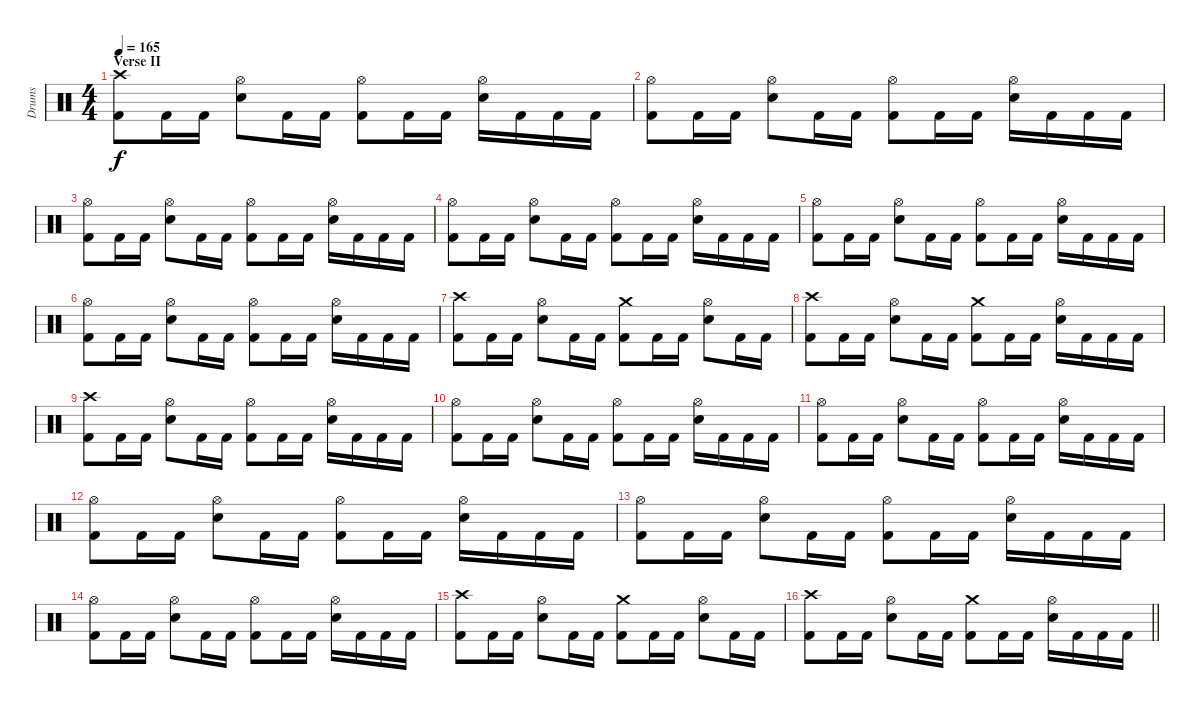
\track ("Drums" "Drums") {instrument percussion}
\staff {score}
\articulation defaults
\ts (4 4)
\section ("" "Verse II")
\tempo 165
\clef neutral
\ks c
("Crash high (hit)" "Kick (hit) 2").8{dy f} "Kick (hit) 2".16 "Kick (hit) 2".16 ("Hi-Hat (open)" "Snare (hit) 2").8 "Kick (hit) 2".16 "Kick (hit) 2".16 ("Hi-Hat (open)" "Kick (hit) 2").8 "Kick (hit) 2".16 "Kick (hit) 2".16 ("Hi-Hat (open)" "Snare (hit) 2").16 "Kick (hit) 2".16 "Kick (hit) 2".16 "Kick (hit) 2".16 |
("Hi-Hat (open)" "Kick (hit) 2").8 "Kick (hit) 2".16 "Kick (hit) 2".16 ("Hi-Hat (open)" "Snare (hit) 2").8 "Kick (hit) 2".16 "Kick (hit) 2".16 ("Hi-Hat (open)" "Kick (hit) 2").8 "Kick (hit) 2".16 "Kick (hit) 2".16 ("Hi-Hat (open)" "Snare (hit) 2").16 "Kick (hit) 2".16 "Kick (hit) 2".16 "Kick (hit) 2".16 |
("Hi-Hat (open)" "Kick (hit) 2").8 "Kick (hit) 2".16 "Kick (hit) 2".16 ("Hi-Hat (open)" "Snare (hit) 2").8 "Kick (hit) 2".16 "Kick (hit) 2".16 ("Hi-Hat (open)" "Kick (hit) 2").8 "Kick (hit) 2".16 "Kick (hit) 2".16 ("Hi-Hat (open)" "Snare (hit) 2").16 "Kick (hit) 2".16 "Kick (hit) 2".16 "Kick (hit) 2".16 |
("Hi-Hat (open)" "Kick (hit) 2").8 "Kick (hit) 2".16 "Kick (hit) 2".16 ("Hi-Hat (open)" "Snare (hit) 2").8 "Kick (hit) 2".16 "Kick (hit) 2".16 ("Hi-Hat (open)" "Kick (hit) 2").8 "Kick (hit) 2".16 "Kick (hit) 2".16 ("Hi-Hat (open)" "Snare (hit) 2").16 "Kick (hit) 2".16 "Kick (hit) 2".16 "Kick (hit) 2".16 |
("Hi-Hat (open)" "Kick (hit) 2").8 "Kick (hit) 2".16 "Kick (hit) 2".16 ("Hi-Hat (open)" "Snare (hit) 2").8 "Kick (hit) 2".16 "Kick (hit) 2".16 ("Hi-Hat (open)" "Kick (hit) 2").8 "Kick (hit) 2".16 "Kick (hit) 2".16 ("Hi-Hat (open)" "Snare (hit) 2").16 "Kick (hit) 2".16 "Kick (hit) 2".16 "Kick (hit) 2".16 |
("Hi-Hat (open)" "Kick (hit) 2").8 "Kick (hit) 2".16 "Kick (hit) 2".16 ("Hi-Hat (open)" "Snare (hit) 2").8 "Kick (hit) 2".16 "Kick (hit) 2".16 ("Hi-Hat (open)" "Kick (hit) 2").8 "Kick (hit) 2".16 "Kick (hit) 2".16 ("Hi-Hat (open)" "Snare (hit) 2").16 "Kick (hit) 2".16 "Kick (hit) 2".16 "Kick (hit) 2".16 |
("Crash high (hit)" "Kick (hit) 2").8 "Kick (hit) 2".16 "Kick (hit) 2".16 ("Hi-Hat (open)" "Snare (hit) 2").8 "Kick (hit) 2".16 "Kick (hit) 2".16 ("Crash medium (hit)" "Kick (hit) 2").8 "Kick (hit) 2".16 "Kick (hit) 2".16 ("Hi-Hat (open)" "Snare (hit) 2").8 "Kick (hit) 2".16 "Kick (hit) 2".16 |
("Crash high (hit)" "Kick (hit) 2").8 "Kick (hit) 2".16 "Kick (hit) 2".16 ("Hi-Hat (open)" "Snare (hit) 2").8 "Kick (hit) 2".16 "Kick (hit) 2".16 ("Crash medium (hit)" "Kick (hit) 2").8 "Kick (hit) 2".16 "Kick (hit) 2".16 ("Hi-Hat (open)" "Snare (hit) 2").16 "Kick (hit) 2".16 "Kick (hit) 2".16 "Kick (hit) 2".16 |
("Crash high (hit)" "Kick (hit) 2").8 "Kick (hit) 2".16 "Kick (hit) 2".16 ("Hi-Hat (open)" "Snare (hit) 2").8 "Kick (hit) 2".16 "Kick (hit) 2".16 ("Hi-Hat (open)" "Kick (hit) 2").8 "Kick (hit) 2".16 "Kick (hit) 2".16 ("Hi-Hat (open)" "Snare (hit) 2").16 "Kick (hit) 2".16 "Kick (hit) 2".16 "Kick (hit) 2".16 |
("Hi-Hat (open)" "Kick (hit) 2").8 "Kick (hit) 2".16 "Kick (hit) 2".16 ("Hi-Hat (open)" "Snare (hit) 2").8 "Kick (hit) 2".16 "Kick (hit) 2".16 ("Hi-Hat (open)" "Kick (hit) 2").8 "Kick (hit) 2".16 "Kick (hit) 2".16 ("Hi-Hat (open)" "Snare (hit) 2").16 "Kick (hit) 2".16 "Kick (hit) 2".16 "Kick (hit) 2".16 |
("Hi-Hat (open)" "Kick (hit) 2").8 "Kick (hit) 2".16 "Kick (hit) 2".16 ("Hi-Hat (open)" "Snare (hit) 2").8 "Kick (hit) 2".16 "Kick (hit) 2".16 ("Hi-Hat (open)" "Kick (hit) 2").8 "Kick (hit) 2".16 "Kick (hit) 2".16 ("Hi-Hat (open)" "Snare (hit) 2").16 "Kick (hit) 2".16 "Kick (hit) 2".16 "Kick (hit) 2".16 |
("Hi-Hat (open)" "Kick (hit) 2").8 "Kick (hit) 2".16 "Kick (hit) 2".16 ("Hi-Hat (open)" "Snare (hit) 2").8 "Kick (hit) 2".16 "Kick (hit) 2".16 ("Hi-Hat (open)" "Kick (hit) 2").8 "Kick (hit) 2".16 "Kick (hit) 2".16 ("Hi-Hat (open)" "Snare (hit) 2").16 "Kick (hit) 2".16 "Kick (hit) 2".16 "Kick (hit) 2".16 |
("Hi-Hat (open)" "Kick (hit) 2").8 "Kick (hit) 2".16 "Kick (hit) 2".16 ("Hi-Hat (open)" "Snare (hit) 2").8 "Kick (hit) 2".16 "Kick (hit) 2".16 ("Hi-Hat (open)" "Kick (hit) 2").8 "Kick (hit) 2".16 "Kick (hit) 2".16 ("Hi-Hat (open)" "Snare (hit) 2").16 "Kick (hit) 2".16 "Kick (hit) 2".16 "Kick (hit) 2".16 |
("Hi-Hat (open)" "Kick (hit) 2").8 "Kick (hit) 2".16 "Kick (hit) 2".16 ("Hi-Hat (open)" "Snare (hit) 2").8 "Kick (hit) 2".16 "Kick (hit) 2".16 ("Hi-Hat (open)" "Kick (hit) 2").8 "Kick (hit) 2".16 "Kick (hit) 2".16 ("Hi-Hat (open)" "Snare (hit) 2").16 "Kick (hit) 2".16 "Kick (hit) 2".16 "Kick (hit) 2".16 |
("Crash high (hit)" "Kick (hit) 2").8 "Kick (hit) 2".16 "Kick (hit) 2".16 ("Hi-Hat (open)" "Snare (hit) 2").8 "Kick (hit) 2".16 "Kick (hit) 2".16 ("Crash medium (hit)" "Kick (hit) 2").8 "Kick (hit) 2".16 "Kick (hit) 2".16 ("Hi-Hat (open)" "Snare (hit) 2").8 "Kick (hit) 2".16 "Kick (hit) 2".16 |
\barLineRight lightlight
("Crash high (hit)" "Kick (hit) 2").8 "Kick (hit) 2".16 "Kick (hit) 2".16 ("Hi-Hat (open)" "Snare (hit) 2").8 "Kick (hit) 2".16 "Kick (hit) 2".16 ("Crash medium (hit)" "Kick (hit) 2").8 "Kick (hit) 2".16 "Kick (hit) 2".16 ("Hi-Hat (open)" "Snare (hit) 2").16 "Kick (hit) 2".16 "Kick (hit) 2".16 "Kick (hit) 2".16
